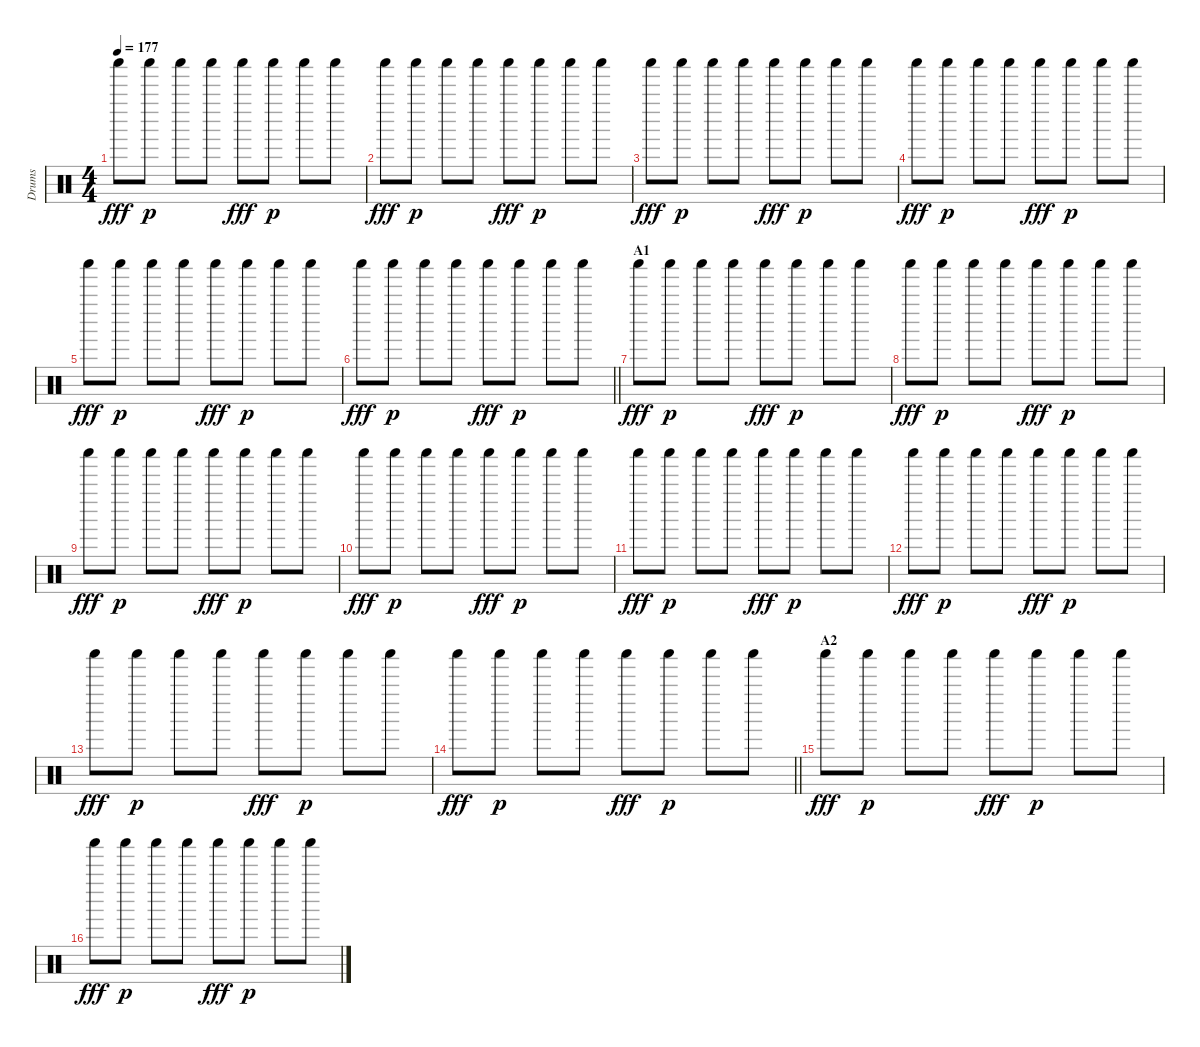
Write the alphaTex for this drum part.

\track ("Drums" "Drums") {instrument percussion}
\staff {score}
\articulation defaults
\ts (4 4)
\tempo 177
\clef neutral
\ks c "Shaker (hit)".8{dy fff} "Shaker (hit)".8{dy p} "Shaker (hit)".8 "Shaker (hit)".8 "Shaker (hit)".8{dy fff} "Shaker (hit)".8{dy p} "Shaker (hit)".8 "Shaker (hit)".8
|
"Shaker (hit)".8{dy fff} "Shaker (hit)".8{dy p} "Shaker (hit)".8 "Shaker (hit)".8 "Shaker (hit)".8{dy fff} "Shaker (hit)".8{dy p} "Shaker (hit)".8 "Shaker (hit)".8 |
"Shaker (hit)".8{dy fff} "Shaker (hit)".8{dy p} "Shaker (hit)".8 "Shaker (hit)".8 "Shaker (hit)".8{dy fff} "Shaker (hit)".8{dy p} "Shaker (hit)".8 "Shaker (hit)".8 |
"Shaker (hit)".8{dy fff} "Shaker (hit)".8{dy p} "Shaker (hit)".8 "Shaker (hit)".8 "Shaker (hit)".8{dy fff} "Shaker (hit)".8{dy p} "Shaker (hit)".8 "Shaker (hit)".8 |
"Shaker (hit)".8{dy fff} "Shaker (hit)".8{dy p} "Shaker (hit)".8 "Shaker (hit)".8 "Shaker (hit)".8{dy fff} "Shaker (hit)".8{dy p} "Shaker (hit)".8 "Shaker (hit)".8 |
\barLineRight lightlight "Shaker (hit)".8{dy fff} "Shaker (hit)".8{dy p} "Shaker (hit)".8 "Shaker (hit)".8 "Shaker (hit)".8{dy fff} "Shaker (hit)".8{dy p} "Shaker (hit)".8 "Shaker (hit)".8
|
\section ("" "A1")
"Shaker (hit)".8{dy fff} "Shaker (hit)".8{dy p} "Shaker (hit)".8 "Shaker (hit)".8 "Shaker (hit)".8{dy fff} "Shaker (hit)".8{dy p} "Shaker (hit)".8 "Shaker (hit)".8 |
"Shaker (hit)".8{dy fff} "Shaker (hit)".8{dy p} "Shaker (hit)".8 "Shaker (hit)".8 "Shaker (hit)".8{dy fff} "Shaker (hit)".8{dy p} "Shaker (hit)".8 "Shaker (hit)".8 |
"Shaker (hit)".8{dy fff} "Shaker (hit)".8{dy p} "Shaker (hit)".8 "Shaker (hit)".8 "Shaker (hit)".8{dy fff} "Shaker (hit)".8{dy p} "Shaker (hit)".8 "Shaker (hit)".8 |
"Shaker (hit)".8{dy fff} "Shaker (hit)".8{dy p} "Shaker (hit)".8 "Shaker (hit)".8 "Shaker (hit)".8{dy fff} "Shaker (hit)".8{dy p} "Shaker (hit)".8 "Shaker (hit)".8 |
"Shaker (hit)".8{dy fff} "Shaker (hit)".8{dy p} "Shaker (hit)".8 "Shaker (hit)".8 "Shaker (hit)".8{dy fff} "Shaker (hit)".8{dy p} "Shaker (hit)".8 "Shaker (hit)".8 |
"Shaker (hit)".8{dy fff} "Shaker (hit)".8{dy p} "Shaker (hit)".8 "Shaker (hit)".8 "Shaker (hit)".8{dy fff} "Shaker (hit)".8{dy p} "Shaker (hit)".8 "Shaker (hit)".8 |
"Shaker (hit)".8{dy fff} "Shaker (hit)".8{dy p} "Shaker (hit)".8 "Shaker (hit)".8 "Shaker (hit)".8{dy fff} "Shaker (hit)".8{dy p} "Shaker (hit)".8 "Shaker (hit)".8 |
\barLineRight lightlight "Shaker (hit)".8{dy fff} "Shaker (hit)".8{dy p} "Shaker (hit)".8 "Shaker (hit)".8 "Shaker (hit)".8{dy fff} "Shaker (hit)".8{dy p} "Shaker (hit)".8 "Shaker (hit)".8
|
\section ("" "A2")
"Shaker (hit)".8{dy fff} "Shaker (hit)".8{dy p} "Shaker (hit)".8 "Shaker (hit)".8 "Shaker (hit)".8{dy fff} "Shaker (hit)".8{dy p} "Shaker (hit)".8 "Shaker (hit)".8 |
"Shaker (hit)".8{dy fff} "Shaker (hit)".8{dy p} "Shaker (hit)".8 "Shaker (hit)".8 "Shaker (hit)".8{dy fff} "Shaker (hit)".8{dy p} "Shaker (hit)".8 "Shaker (hit)".8
